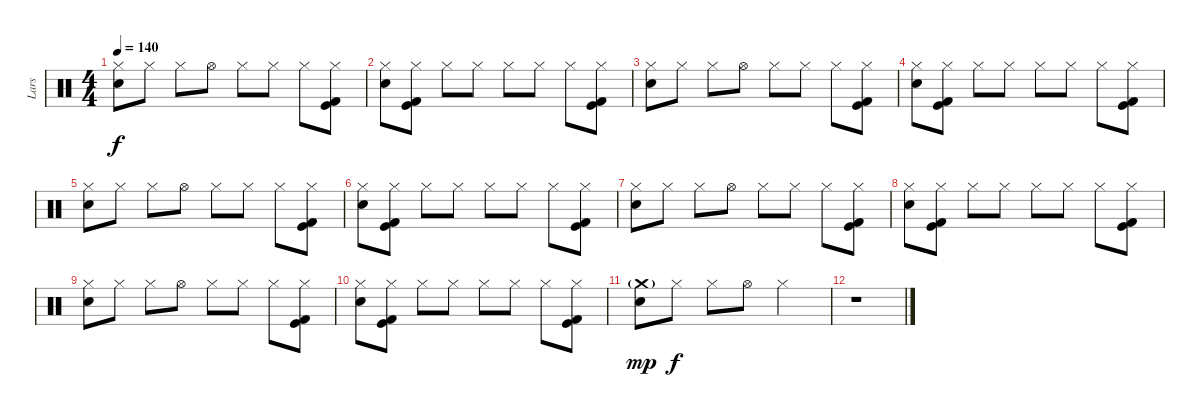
\track ("Lars" "Lars") {instrument percussion}
\staff {score}
\articulation defaults
\ts (4 4)
\tempo 140
\clef neutral
\ks c
("Hi-Hat (closed)" "Electric Snare (hit)").8{dy f} "Hi-Hat (closed)".8 "Hi-Hat (closed)".8 "Hi-Hat (open)".8 "Hi-Hat (closed)".8 "Hi-Hat (closed)".8 "Hi-Hat (closed)".8 ("Hi-Hat (closed)" "Kick (hit)" "Kick (hit) 2").8 |
("Hi-Hat (closed)" "Electric Snare (hit)").8 ("Hi-Hat (closed)" "Kick (hit)" "Kick (hit) 2").8 "Hi-Hat (closed)".8 "Hi-Hat (closed)".8 "Hi-Hat (closed)".8 "Hi-Hat (closed)".8 "Hi-Hat (closed)".8 ("Hi-Hat (closed)" "Kick (hit)" "Kick (hit) 2").8 |
("Hi-Hat (closed)" "Electric Snare (hit)").8 "Hi-Hat (closed)".8 "Hi-Hat (closed)".8 "Hi-Hat (open)".8 "Hi-Hat (closed)".8 "Hi-Hat (closed)".8 "Hi-Hat (closed)".8 ("Hi-Hat (closed)" "Kick (hit)" "Kick (hit) 2").8 |
("Hi-Hat (closed)" "Electric Snare (hit)").8 ("Hi-Hat (closed)" "Kick (hit)" "Kick (hit) 2").8 "Hi-Hat (closed)".8 "Hi-Hat (closed)".8 "Hi-Hat (closed)".8 "Hi-Hat (closed)".8 "Hi-Hat (closed)".8 ("Hi-Hat (closed)" "Kick (hit)" "Kick (hit) 2").8 |
("Hi-Hat (closed)" "Electric Snare (hit)").8 "Hi-Hat (closed)".8 "Hi-Hat (closed)".8 "Hi-Hat (open)".8 "Hi-Hat (closed)".8 "Hi-Hat (closed)".8 "Hi-Hat (closed)".8 ("Hi-Hat (closed)" "Kick (hit)" "Kick (hit) 2").8 |
("Hi-Hat (closed)" "Electric Snare (hit)").8 ("Hi-Hat (closed)" "Kick (hit)" "Kick (hit) 2").8 "Hi-Hat (closed)".8 "Hi-Hat (closed)".8 "Hi-Hat (closed)".8 "Hi-Hat (closed)".8 "Hi-Hat (closed)".8 ("Hi-Hat (closed)" "Kick (hit)" "Kick (hit) 2").8 |
("Hi-Hat (closed)" "Electric Snare (hit)").8 "Hi-Hat (closed)".8 "Hi-Hat (closed)".8 "Hi-Hat (open)".8 "Hi-Hat (closed)".8 "Hi-Hat (closed)".8 "Hi-Hat (closed)".8 ("Hi-Hat (closed)" "Kick (hit)" "Kick (hit) 2").8 |
("Hi-Hat (closed)" "Electric Snare (hit)").8 ("Hi-Hat (closed)" "Kick (hit)" "Kick (hit) 2").8 "Hi-Hat (closed)".8 "Hi-Hat (closed)".8 "Hi-Hat (closed)".8 "Hi-Hat (closed)".8 "Hi-Hat (closed)".8 ("Hi-Hat (closed)" "Kick (hit)" "Kick (hit) 2").8 |
("Hi-Hat (closed)" "Electric Snare (hit)").8 "Hi-Hat (closed)".8 "Hi-Hat (closed)".8 "Hi-Hat (open)".8 "Hi-Hat (closed)".8 "Hi-Hat (closed)".8 "Hi-Hat (closed)".8 ("Hi-Hat (closed)" "Kick (hit)" "Kick (hit) 2").8 |
("Hi-Hat (closed)" "Electric Snare (hit)").8 ("Hi-Hat (closed)" "Kick (hit)" "Kick (hit) 2").8 "Hi-Hat (closed)".8 "Hi-Hat (closed)".8 "Hi-Hat (closed)".8 "Hi-Hat (closed)".8 "Hi-Hat (closed)".8 ("Hi-Hat (closed)" "Kick (hit)" "Kick (hit) 2").8 |
("Crash medium (hit)"{g} "Electric Snare (hit)").8{dy mp} "Hi-Hat (closed)".8{dy f} "Hi-Hat (closed)".8 "Hi-Hat (open)".8 "Hi-Hat (closed)".2 |
r.1
